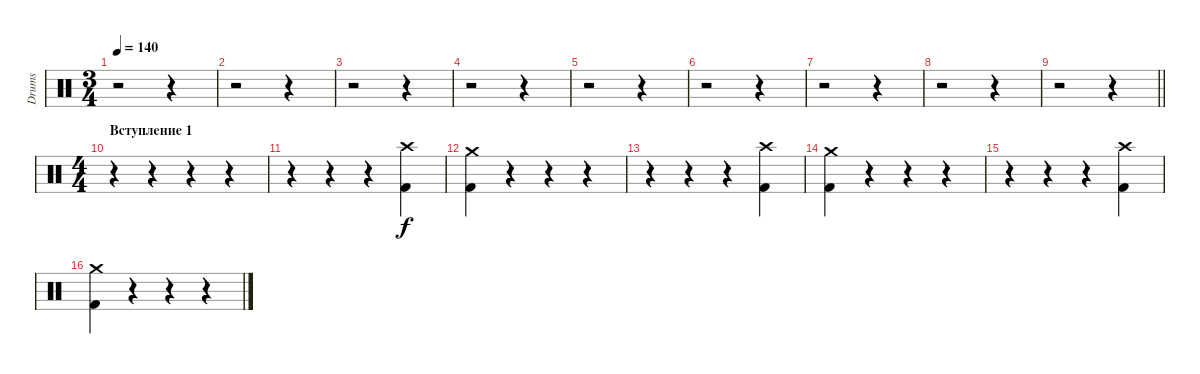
\track ("Drums" "Drums") {instrument percussion}
\staff {score}
\articulation defaults
\ts (3 4)
\tempo 140
\clef neutral
\ks c
r.2{dy f} r.4 |
r.2 r.4 |
r.2 r.4 |
r.2 r.4 |
r.2 r.4 |
r.2 r.4 |
r.2 r.4 |
r.2 r.4 |
\barLineRight lightlight
r.2 r.4 |
\ts (4 4)
\section ("" "Вступление 1")
r.4 r.4 r.4 r.4 |
r.4 r.4 r.4 ("Crash high (hit)" "Kick (hit) 2").4 |
("Crash medium (hit)" "Kick (hit) 2").4 r.4 r.4 r.4 |
r.4 r.4 r.4 ("Crash high (hit)" "Kick (hit) 2").4 |
("Crash medium (hit)" "Kick (hit) 2").4 r.4 r.4 r.4 |
r.4 r.4 r.4 ("Crash high (hit)" "Kick (hit) 2").4 |
("Crash medium (hit)" "Kick (hit) 2").4 r.4 r.4 r.4
